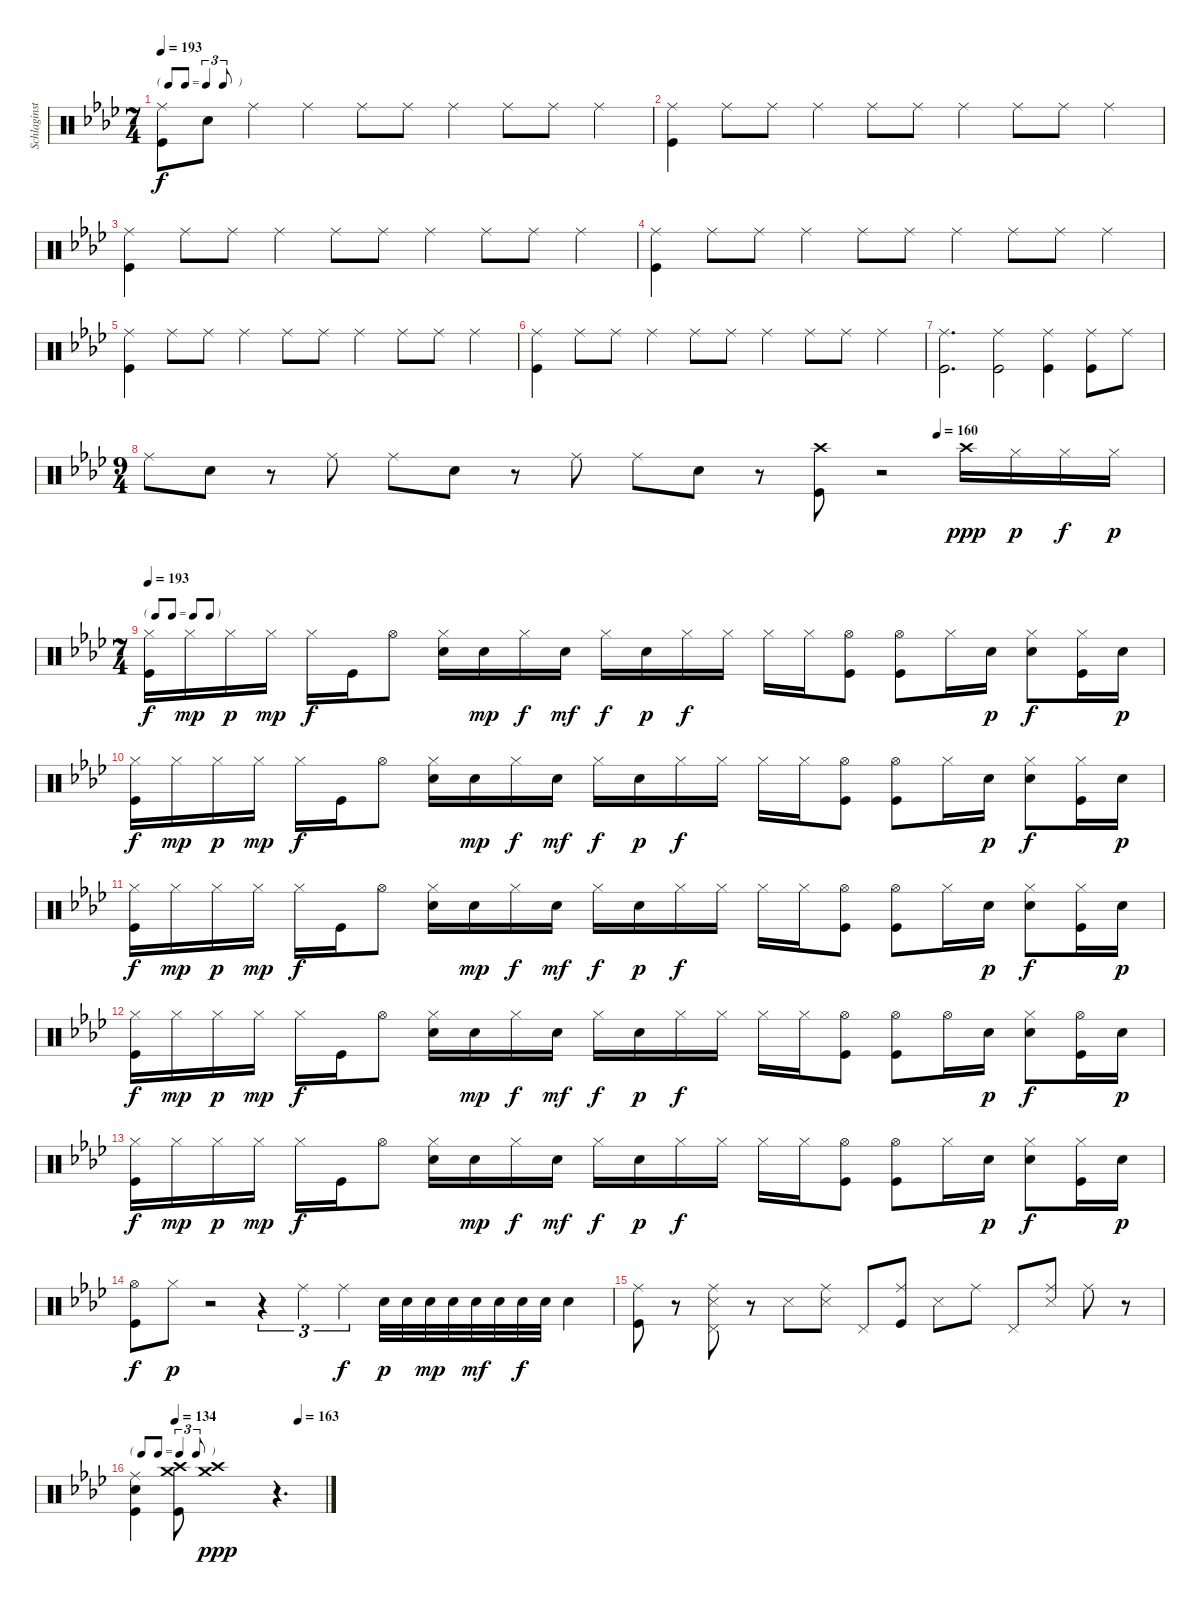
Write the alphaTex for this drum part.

\track ("Schlaginstrumente - Auswahl" "Schlaginst") {instrument percussion}
\staff {score}
\articulation defaults
\ts (7 4)
\tf triplet8th
\tempo 193
\clef neutral
\ks ab
("Ride (middle)" "Kick (hit)").8{dy f} "Snare (hit) 2".8 "Ride (middle)".4 "Ride (middle)".4 "Ride (middle)".8 "Ride (middle)".8 "Ride (middle)".4 "Ride (middle)".8 "Ride (middle)".8 "Ride (middle)".4 |
("Ride (middle)" "Kick (hit)").4 "Ride (middle)".8 "Ride (middle)".8 "Ride (middle)".4 "Ride (middle)".8 "Ride (middle)".8 "Ride (middle)".4 "Ride (middle)".8 "Ride (middle)".8 "Ride (middle)".4 |
("Ride (middle)" "Kick (hit)").4 "Ride (middle)".8 "Ride (middle)".8 "Ride (middle)".4 "Ride (middle)".8 "Ride (middle)".8 "Ride (middle)".4 "Ride (middle)".8 "Ride (middle)".8 "Ride (middle)".4 |
("Ride (middle)" "Kick (hit)").4 "Ride (middle)".8 "Ride (middle)".8 "Ride (middle)".4 "Ride (middle)".8 "Ride (middle)".8 "Ride (middle)".4 "Ride (middle)".8 "Ride (middle)".8 "Ride (middle)".4 |
("Ride (middle)" "Kick (hit)").4 "Ride (middle)".8 "Ride (middle)".8 "Ride (middle)".4 "Ride (middle)".8 "Ride (middle)".8 "Ride (middle)".4 "Ride (middle)".8 "Ride (middle)".8 "Ride (middle)".4 |
("Ride (middle)" "Kick (hit)").4 "Ride (middle)".8 "Ride (middle)".8 "Ride (middle)".4 "Ride (middle)".8 "Ride (middle)".8 "Ride (middle)".4 "Ride (middle)".8 "Ride (middle)".8 "Ride (middle)".4 |
("Ride (middle)" "Kick (hit)").2{d} ("Ride (middle)" "Kick (hit)").2 ("Ride (middle)" "Kick (hit)").4 ("Ride (middle)" "Kick (hit)").8 "Ride (middle)".8 |
\ts (9 4)
\tempo (160 0.7777777777777778)
"Ride (middle)".8 "Snare (hit) 2".8 r.8 "Ride (middle)".8 "Ride (middle)".8 "Snare (hit) 2".8 r.8 "Ride (middle)".8 "Ride (middle)".8 "Snare (hit) 2".8 r.8 ("Crash high (hit)" "Kick (hit)").8 r.2 "Crash high (hit)".16{dy ppp} "Hi-Hat (closed)".16{dy p} "Hi-Hat (closed)".16{dy f} "Hi-Hat (closed)".16{dy p} |
\ts (7 4)
\tf none
\tempo 193
("Hi-Hat (closed)" "Kick (hit)").16{dy f} "Hi-Hat (closed)".16{dy mp} "Hi-Hat (closed)".16{dy p} "Hi-Hat (closed)".16{dy mp} "Hi-Hat (closed)".16{dy f} "Kick (hit)".16 "Hi-Hat (open)".8 ("Hi-Hat (closed)" "Snare (hit) 2").16 "Snare (hit) 2".16{dy mp} "Hi-Hat (closed)".16{dy f} "Snare (hit) 2".16{dy mf} "Hi-Hat (closed)".16{dy f} "Snare (hit) 2".16{dy p} "Hi-Hat (closed)".16{dy f} "Hi-Hat (closed)".16 "Hi-Hat (closed)".16 "Hi-Hat (closed)".16 ("Hi-Hat (open)" "Kick (hit)").8 ("Hi-Hat (open)" "Kick (hit)").8 "Hi-Hat (closed)".16 "Snare (hit) 2".16{dy p} ("Hi-Hat (closed)" "Snare (hit) 2").8{dy f} ("Hi-Hat (closed)" "Kick (hit)").16 "Snare (hit) 2".16{dy p} |
("Hi-Hat (closed)" "Kick (hit)").16{dy f} "Hi-Hat (closed)".16{dy mp} "Hi-Hat (closed)".16{dy p} "Hi-Hat (closed)".16{dy mp} "Hi-Hat (closed)".16{dy f} "Kick (hit)".16 "Hi-Hat (open)".8 ("Hi-Hat (closed)" "Snare (hit) 2").16 "Snare (hit) 2".16{dy mp} "Hi-Hat (closed)".16{dy f} "Snare (hit) 2".16{dy mf} "Hi-Hat (closed)".16{dy f} "Snare (hit) 2".16{dy p} "Hi-Hat (closed)".16{dy f} "Hi-Hat (closed)".16 "Hi-Hat (closed)".16 "Hi-Hat (closed)".16 ("Hi-Hat (open)" "Kick (hit)").8 ("Hi-Hat (open)" "Kick (hit)").8 "Hi-Hat (closed)".16 "Snare (hit) 2".16{dy p} ("Hi-Hat (closed)" "Snare (hit) 2").8{dy f} ("Hi-Hat (closed)" "Kick (hit)").16 "Snare (hit) 2".16{dy p} |
("Hi-Hat (closed)" "Kick (hit)").16{dy f} "Hi-Hat (closed)".16{dy mp} "Hi-Hat (closed)".16{dy p} "Hi-Hat (closed)".16{dy mp} "Hi-Hat (closed)".16{dy f} "Kick (hit)".16 "Hi-Hat (open)".8 ("Hi-Hat (closed)" "Snare (hit) 2").16 "Snare (hit) 2".16{dy mp} "Hi-Hat (closed)".16{dy f} "Snare (hit) 2".16{dy mf} "Hi-Hat (closed)".16{dy f} "Snare (hit) 2".16{dy p} "Hi-Hat (closed)".16{dy f} "Hi-Hat (closed)".16 "Hi-Hat (closed)".16 "Hi-Hat (closed)".16 ("Hi-Hat (open)" "Kick (hit)").8 ("Hi-Hat (open)" "Kick (hit)").8 "Hi-Hat (closed)".16 "Snare (hit) 2".16{dy p} ("Hi-Hat (closed)" "Snare (hit) 2").8{dy f} ("Hi-Hat (closed)" "Kick (hit)").16 "Snare (hit) 2".16{dy p} |
("Hi-Hat (closed)" "Kick (hit)").16{dy f} "Hi-Hat (closed)".16{dy mp} "Hi-Hat (closed)".16{dy p} "Hi-Hat (closed)".16{dy mp} "Hi-Hat (closed)".16{dy f} "Kick (hit)".16 "Hi-Hat (open)".8 ("Hi-Hat (closed)" "Snare (hit) 2").16 "Snare (hit) 2".16{dy mp} "Hi-Hat (closed)".16{dy f} "Snare (hit) 2".16{dy mf} "Hi-Hat (closed)".16{dy f} "Snare (hit) 2".16{dy p} "Hi-Hat (closed)".16{dy f} "Hi-Hat (closed)".16 "Hi-Hat (closed)".16 "Hi-Hat (closed)".16 ("Hi-Hat (open)" "Kick (hit)").8 ("Hi-Hat (open)" "Kick (hit)").8 "Hi-Hat (open)".16 "Snare (hit) 2".16{dy p} ("Hi-Hat (closed)" "Snare (hit) 2").8{dy f} ("Hi-Hat (open)" "Kick (hit)").16 "Snare (hit) 2".16{dy p} |
("Hi-Hat (closed)" "Kick (hit)").16{dy f} "Hi-Hat (closed)".16{dy mp} "Hi-Hat (closed)".16{dy p} "Hi-Hat (closed)".16{dy mp} "Hi-Hat (closed)".16{dy f} "Kick (hit)".16 "Hi-Hat (open)".8 ("Hi-Hat (closed)" "Snare (hit) 2").16 "Snare (hit) 2".16{dy mp} "Hi-Hat (closed)".16{dy f} "Snare (hit) 2".16{dy mf} "Hi-Hat (closed)".16{dy f} "Snare (hit) 2".16{dy p} "Hi-Hat (closed)".16{dy f} "Hi-Hat (closed)".16 "Hi-Hat (closed)".16 "Hi-Hat (closed)".16 ("Hi-Hat (open)" "Kick (hit)").8 ("Hi-Hat (open)" "Kick (hit)").8 "Hi-Hat (closed)".16 "Snare (hit) 2".16{dy p} ("Hi-Hat (closed)" "Snare (hit) 2").8{dy f} ("Hi-Hat (closed)" "Kick (hit)").16 "Snare (hit) 2".16{dy p} |
("Hi-Hat (open)" "Kick (hit)").8{dy f} "Hi-Hat (closed)".8{dy p} r.2 r.4{tu (3 2)} "Ride (middle)".4{tu (3 2)} "Ride (middle)".4{tu (3 2) dy f} "Snare (hit) 2".32{dy p} "Snare (hit) 2".32 "Snare (hit) 2".32{dy mp} "Snare (hit) 2".32 "Snare (hit) 2".32{dy mf} "Snare (hit) 2".32 "Snare (hit) 2".32{dy f} "Snare (hit) 2".32 "Snare (hit) 2".4 |
("Ride (middle)" "Kick (hit)").8 r.8 ("Ride (middle)" "Pedal Hi-Hat (hit)" "Snare (side stick) 3").8 r.8 "Snare (side stick) 3".8 ("Ride (middle)" "Snare (side stick) 3").8 "Pedal Hi-Hat (hit)".8 ("Ride (middle)" "Kick (hit)").8 "Snare (side stick) 3".8 "Ride (middle)".8 "Pedal Hi-Hat (hit)".8 ("Ride (middle)" "Snare (side stick) 3").8 "Ride (middle)".8 r.8 |
\tf triplet8th
\tempo (134 0.21428571428571427)
\tempo (163 0.8571428571428571)
("Ride (middle)" "Snare (hit) 2" "Kick (hit)").4 ("Crash medium (hit)" "Crash high (hit)" "Kick (hit)").8 ("Crash medium (hit)" "Crash high (hit)").1{dy ppp} r.4{d}
